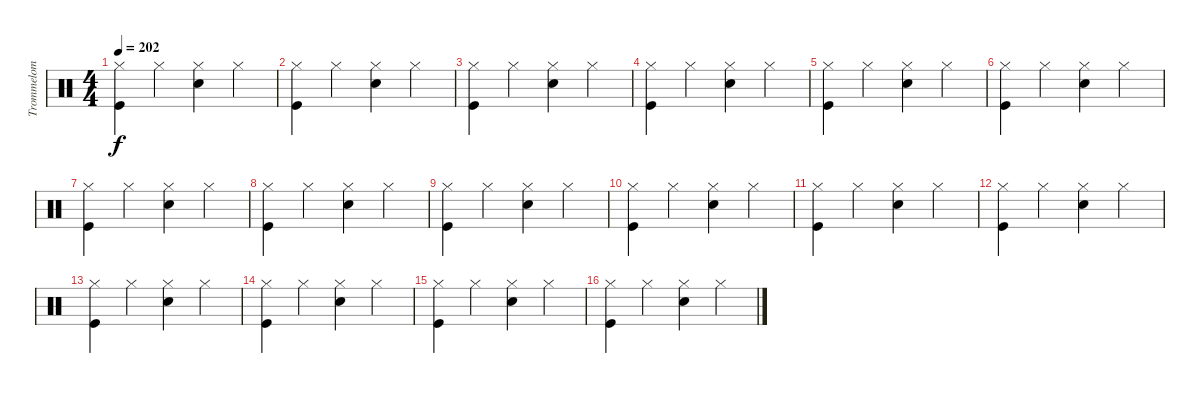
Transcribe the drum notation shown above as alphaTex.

\track ("Trommelom" "Trommelom") {instrument percussion}
\staff {score}
\articulation defaults
\ts (4 4)
\tempo 202
\clef neutral
\ks c
("Kick (hit)" "Hi-Hat (closed)").4{dy f} "Hi-Hat (closed)".4 ("Electric Snare (hit)" "Hi-Hat (closed)").4 "Hi-Hat (closed)".4 |
("Kick (hit)" "Hi-Hat (closed)").4 "Hi-Hat (closed)".4 ("Electric Snare (hit)" "Hi-Hat (closed)").4 "Hi-Hat (closed)".4 |
("Kick (hit)" "Hi-Hat (closed)").4 "Hi-Hat (closed)".4 ("Electric Snare (hit)" "Hi-Hat (closed)").4 "Hi-Hat (closed)".4 |
("Kick (hit)" "Hi-Hat (closed)").4 "Hi-Hat (closed)".4 ("Electric Snare (hit)" "Hi-Hat (closed)").4 "Hi-Hat (closed)".4 |
("Kick (hit)" "Hi-Hat (closed)").4 "Hi-Hat (closed)".4 ("Electric Snare (hit)" "Hi-Hat (closed)").4 "Hi-Hat (closed)".4 |
("Kick (hit)" "Hi-Hat (closed)").4 "Hi-Hat (closed)".4 ("Electric Snare (hit)" "Hi-Hat (closed)").4 "Hi-Hat (closed)".4 |
("Kick (hit)" "Hi-Hat (closed)").4 "Hi-Hat (closed)".4 ("Electric Snare (hit)" "Hi-Hat (closed)").4 "Hi-Hat (closed)".4 |
("Kick (hit)" "Hi-Hat (closed)").4 "Hi-Hat (closed)".4 ("Electric Snare (hit)" "Hi-Hat (closed)").4 "Hi-Hat (closed)".4 |
("Kick (hit)" "Hi-Hat (closed)").4 "Hi-Hat (closed)".4 ("Electric Snare (hit)" "Hi-Hat (closed)").4 "Hi-Hat (closed)".4 |
("Kick (hit)" "Hi-Hat (closed)").4 "Hi-Hat (closed)".4 ("Electric Snare (hit)" "Hi-Hat (closed)").4 "Hi-Hat (closed)".4 |
("Kick (hit)" "Hi-Hat (closed)").4 "Hi-Hat (closed)".4 ("Electric Snare (hit)" "Hi-Hat (closed)").4 "Hi-Hat (closed)".4 |
("Kick (hit)" "Hi-Hat (closed)").4 "Hi-Hat (closed)".4 ("Electric Snare (hit)" "Hi-Hat (closed)").4 "Hi-Hat (closed)".4 |
("Kick (hit)" "Hi-Hat (closed)").4 "Hi-Hat (closed)".4 ("Electric Snare (hit)" "Hi-Hat (closed)").4 "Hi-Hat (closed)".4 |
("Kick (hit)" "Hi-Hat (closed)").4 "Hi-Hat (closed)".4 ("Electric Snare (hit)" "Hi-Hat (closed)").4 "Hi-Hat (closed)".4 |
("Kick (hit)" "Hi-Hat (closed)").4 "Hi-Hat (closed)".4 ("Electric Snare (hit)" "Hi-Hat (closed)").4 "Hi-Hat (closed)".4 |
("Kick (hit)" "Hi-Hat (closed)").4 "Hi-Hat (closed)".4 ("Electric Snare (hit)" "Hi-Hat (closed)").4 "Hi-Hat (closed)".4
